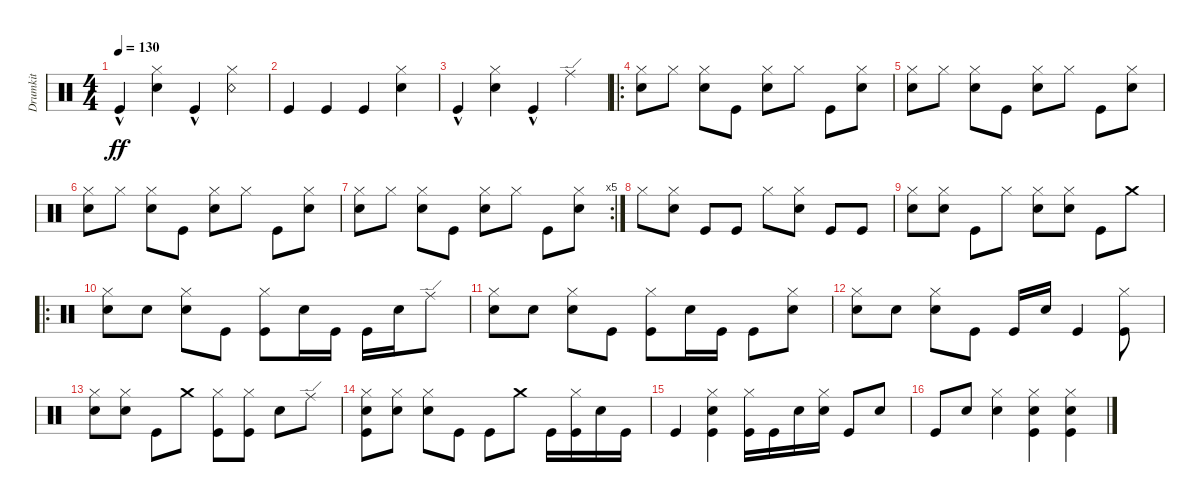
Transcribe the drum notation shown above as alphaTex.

\track ("Drumkit" "Drumkit") {instrument percussion}
\staff {score}
\articulation defaults
\ts (4 4)
\tempo 130
\clef neutral
\ks c "Kick (hit)"{hac}.4{dy ff}
("Snare (hit) 2" "Hi-Hat (closed)").4 "Kick (hit)"{hac}.4 ("Snare (rim shot)" "Hi-Hat (closed)").4 |
"Kick (hit)".4 "Kick (hit)".4 "Kick (hit)".4 ("Hi-Hat (closed)" "Snare (hit) 2").4 |
"Kick (hit)"{hac}.4 ("Snare (hit) 2" "Hi-Hat (closed)").4 "Kick (hit)"{hac}.4 "Ride (edge)".4 |
\ro
("Snare (hit) 2" "Hi-Hat (closed)").8 "Hi-Hat (closed)".8 ("Snare (hit) 2" "Hi-Hat (closed)").8 "Kick (hit)".8 ("Hi-Hat (closed)" "Snare (hit) 2").8 "Hi-Hat (closed)".8 "Kick (hit)".8 ("Snare (hit) 2" "Hi-Hat (closed)").8 |
("Snare (hit) 2" "Hi-Hat (closed)").8 "Hi-Hat (closed)".8 ("Snare (hit) 2" "Hi-Hat (closed)").8 "Kick (hit)".8 ("Hi-Hat (closed)" "Snare (hit) 2").8 "Hi-Hat (closed)".8 "Kick (hit)".8 ("Snare (hit) 2" "Hi-Hat (closed)").8 |
("Snare (hit) 2" "Hi-Hat (closed)").8 "Hi-Hat (closed)".8 ("Snare (hit) 2" "Hi-Hat (closed)").8 "Kick (hit)".8 ("Hi-Hat (closed)" "Snare (hit) 2").8 "Hi-Hat (closed)".8 "Kick (hit)".8 ("Snare (hit) 2" "Hi-Hat (closed)").8 |
\rc 5
("Snare (hit) 2" "Hi-Hat (closed)").8 "Hi-Hat (closed)".8 ("Snare (hit) 2" "Hi-Hat (closed)").8 "Kick (hit)".8 ("Hi-Hat (closed)" "Snare (hit) 2").8 "Hi-Hat (closed)".8 "Kick (hit)".8 ("Snare (hit) 2" "Hi-Hat (closed)").8 |
"Hi-Hat (closed)".8 ("Snare (hit) 2" "Hi-Hat (closed)").8 "Kick (hit)".8 "Kick (hit)".8 "Hi-Hat (closed)".8 ("Snare (hit) 2" "Hi-Hat (closed)").8 "Kick (hit)".8 "Kick (hit)".8 |
("Hi-Hat (closed)" "Snare (hit) 2").8 ("Hi-Hat (closed)" "Snare (hit) 2").8 "Kick (hit)".8 "Hi-Hat (closed)".8 ("Hi-Hat (closed)" "Snare (hit) 2").8 ("Hi-Hat (closed)" "Snare (hit) 2").8 "Kick (hit)".8 "Crash medium (hit)".8 |
\ro
("Snare (hit) 2" "Hi-Hat (closed)").8 "Snare (hit) 2".8 ("Hi-Hat (closed)" "Snare (hit) 2").8 "Kick (hit)".8 ("Kick (hit)" "Hi-Hat (closed)").8 "Snare (hit) 2".16 "Kick (hit)".16 "Kick (hit)".16 "Snare (hit) 2".16 "Ride (edge)".8 |
("Snare (hit) 2" "Hi-Hat (closed)").8 "Snare (hit) 2".8 ("Hi-Hat (closed)" "Snare (hit) 2").8 "Kick (hit)".8 ("Kick (hit)" "Hi-Hat (closed)").8 "Snare (hit) 2".16 "Kick (hit)".16 "Kick (hit)".8 ("Snare (hit) 2" "Hi-Hat (closed)").8 |
("Snare (hit) 2" "Hi-Hat (closed)").8 "Snare (hit) 2".8 ("Hi-Hat (closed)" "Snare (hit) 2").8 "Kick (hit)".8 "Kick (hit)".16 "Snare (hit) 2".16 "Kick (hit)".4 ("Kick (hit)" "Hi-Hat (closed)").8 |
("Hi-Hat (closed)" "Snare (hit) 2").8 ("Hi-Hat (closed)" "Snare (hit) 2").8 "Kick (hit)".8 "Crash medium (hit)".8 ("Kick (hit)" "Hi-Hat (closed)").8 ("Kick (hit)" "Hi-Hat (closed)").8 "Snare (hit) 2".8 "Ride (edge)".8 |
("Snare (hit) 2" "Kick (hit)" "Hi-Hat (closed)").8 ("Snare (hit) 2" "Hi-Hat (closed)").8 ("Snare (hit) 2" "Hi-Hat (closed)").8 "Kick (hit)".8 "Kick (hit)".8 "Crash medium (hit)".8 "Kick (hit)".16 ("Kick (hit)" "Hi-Hat (closed)").16 "Snare (hit) 2".16 "Kick (hit)".16 |
"Kick (hit)".4 ("Kick (hit)" "Hi-Hat (closed)" "Snare (hit) 2").4 ("Kick (hit)" "Hi-Hat (closed)").16 "Kick (hit)".16 "Snare (hit) 2".16 ("Snare (hit) 2" "Hi-Hat (closed)").16 "Kick (hit)".8 "Snare (hit) 2".8 |
"Kick (hit)".8 "Snare (hit) 2".8 ("Snare (hit) 2" "Hi-Hat (closed)").4 ("Snare (hit) 2" "Hi-Hat (closed)" "Kick (hit)").4 ("Hi-Hat (closed)" "Snare (hit) 2" "Kick (hit)").4
